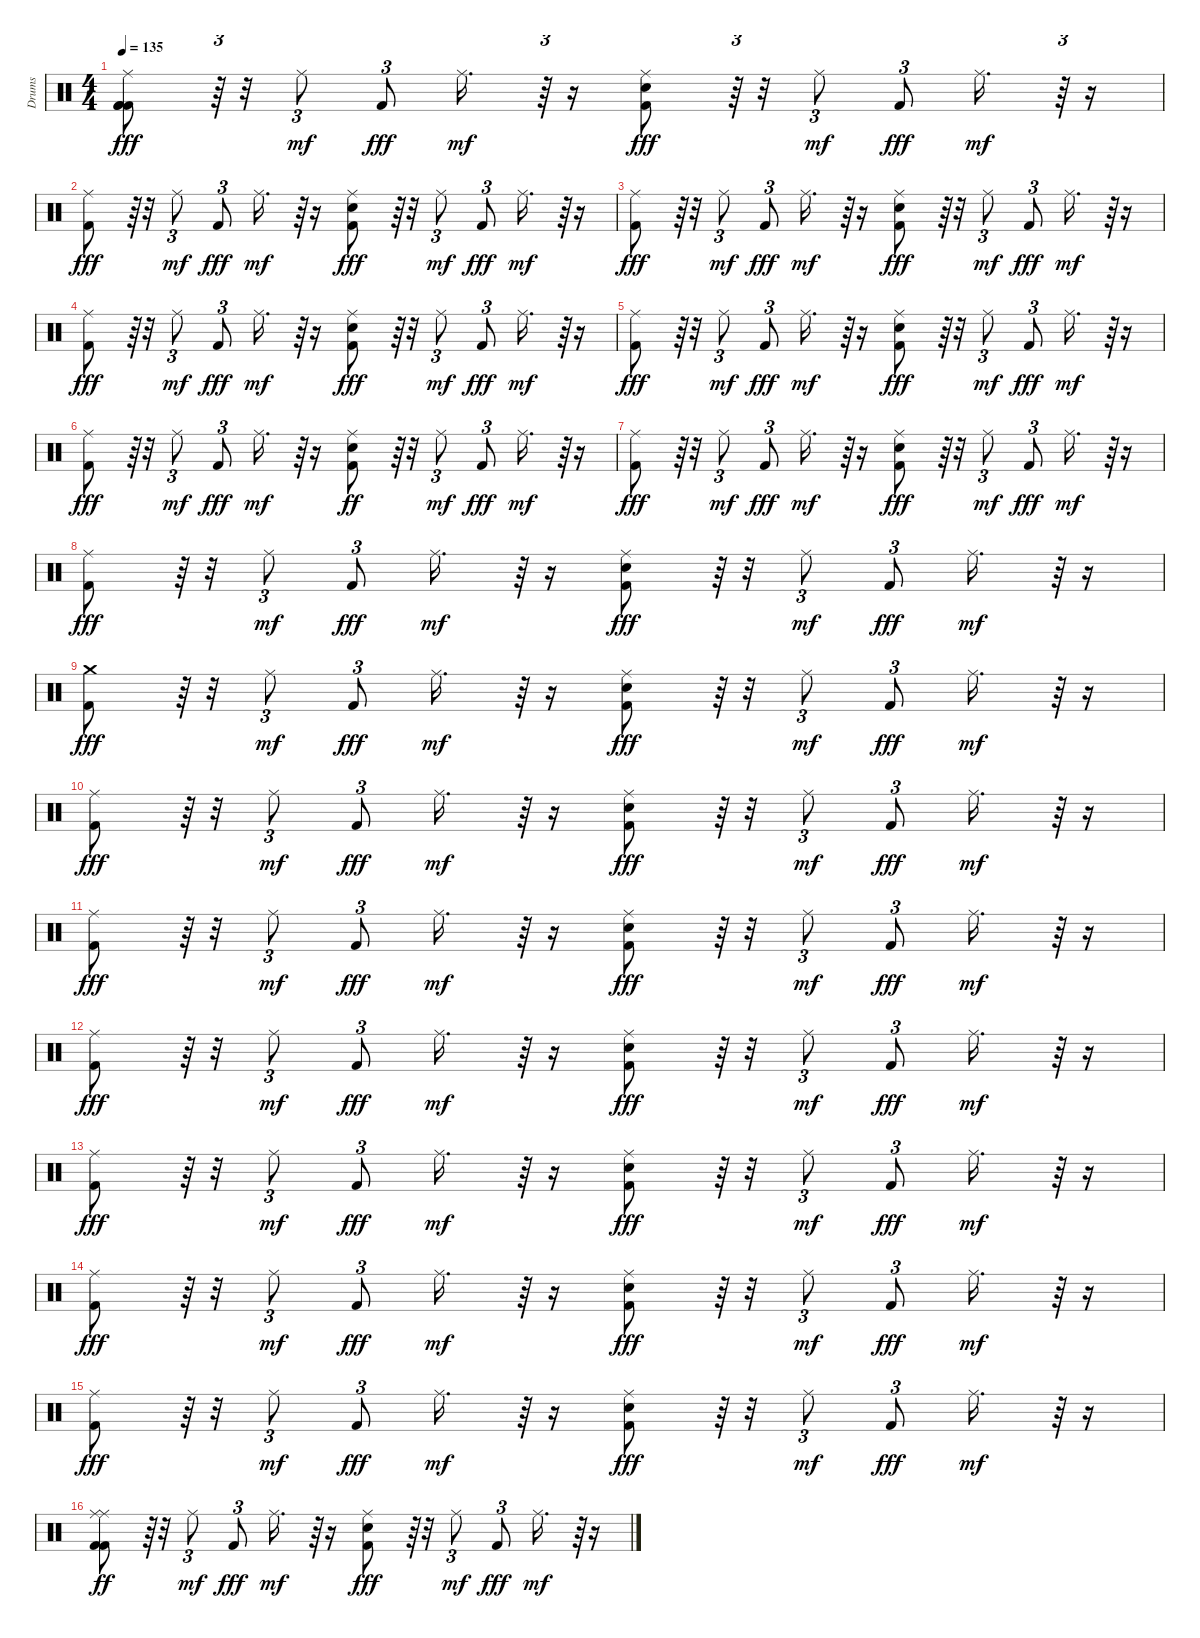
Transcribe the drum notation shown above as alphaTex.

\track ("Drums" "Drums") {instrument percussion}
\staff {score}
\articulation defaults
\ts (4 4)
\tempo 135
\clef neutral
\ks c
("Ride (middle)" "Kick (hit) 2" "Kick (hit) 2" "Kick (hit) 2").8{dy fff} r.64{tu (3 2)} r.32 "Ride (middle)".8{tu (3 2) dy mf} "Kick (hit) 2".8{tu (3 2) dy fff} "Ride (middle)".16{d dy mf} r.64{tu (3 2)} r.16 ("Ride (middle)" "Kick (hit) 2" "Snare (hit) 2").8{dy fff} r.64{tu (3 2)} r.32 "Ride (middle)".8{tu (3 2) dy mf} "Kick (hit) 2".8{tu (3 2) dy fff} "Ride (middle)".16{d dy mf} r.64{tu (3 2)} r.16 |
("Ride (middle)" "Kick (hit) 2").8{dy fff} r.64{tu (3 2)} r.32 "Ride (middle)".8{tu (3 2) dy mf} "Kick (hit) 2".8{tu (3 2) dy fff} "Ride (middle)".16{d dy mf} r.64{tu (3 2)} r.16 ("Ride (middle)" "Snare (hit) 2" "Kick (hit) 2").8{dy fff} r.64{tu (3 2)} r.32 "Ride (middle)".8{tu (3 2) dy mf} "Kick (hit) 2".8{tu (3 2) dy fff} "Ride (middle)".16{d dy mf} r.64{tu (3 2)} r.16 |
("Ride (middle)" "Kick (hit) 2").8{dy fff} r.64{tu (3 2)} r.32 "Ride (middle)".8{tu (3 2) dy mf} "Kick (hit) 2".8{tu (3 2) dy fff} "Ride (middle)".16{d dy mf} r.64{tu (3 2)} r.16 ("Ride (middle)" "Kick (hit) 2" "Snare (hit) 2").8{dy fff} r.64{tu (3 2)} r.32 "Ride (middle)".8{tu (3 2) dy mf} "Kick (hit) 2".8{tu (3 2) dy fff} "Ride (middle)".16{d dy mf} r.64{tu (3 2)} r.16 |
("Ride (middle)" "Kick (hit) 2").8{dy fff} r.64{tu (3 2)} r.32 "Ride (middle)".8{tu (3 2) dy mf} "Kick (hit) 2".8{tu (3 2) dy fff} "Ride (middle)".16{d dy mf} r.64{tu (3 2)} r.16 ("Ride (middle)" "Snare (hit) 2" "Kick (hit) 2").8{dy fff} r.64{tu (3 2)} r.32 "Ride (middle)".8{tu (3 2) dy mf} "Kick (hit) 2".8{tu (3 2) dy fff} "Ride (middle)".16{d dy mf} r.64{tu (3 2)} r.16 |
("Ride (middle)" "Kick (hit) 2").8{dy fff} r.64{tu (3 2)} r.32 "Ride (middle)".8{tu (3 2) dy mf} "Kick (hit) 2".8{tu (3 2) dy fff} "Ride (middle)".16{d dy mf} r.64{tu (3 2)} r.16 ("Ride (middle)" "Snare (hit) 2" "Kick (hit) 2").8{dy fff} r.64{tu (3 2)} r.32 "Ride (middle)".8{tu (3 2) dy mf} "Kick (hit) 2".8{tu (3 2) dy fff} "Ride (middle)".16{d dy mf} r.64{tu (3 2)} r.16 |
("Ride (middle)" "Kick (hit) 2").8{dy fff} r.64{tu (3 2)} r.32 "Ride (middle)".8{tu (3 2) dy mf} "Kick (hit) 2".8{tu (3 2) dy fff} "Ride (middle)".16{d dy mf} r.64{tu (3 2)} r.16 ("Ride (middle)" "Kick (hit) 2" "Snare (hit) 2").8{dy ff} r.64{tu (3 2)} r.32 "Ride (middle)".8{tu (3 2) dy mf} "Kick (hit) 2".8{tu (3 2) dy fff} "Ride (middle)".16{d dy mf} r.64{tu (3 2)} r.16 |
("Ride (middle)" "Kick (hit) 2").8{dy fff} r.64{tu (3 2)} r.32 "Ride (middle)".8{tu (3 2) dy mf} "Kick (hit) 2".8{tu (3 2) dy fff} "Ride (middle)".16{d dy mf} r.64{tu (3 2)} r.16 ("Ride (middle)" "Snare (hit) 2" "Kick (hit) 2").8{dy fff} r.64{tu (3 2)} r.32 "Ride (middle)".8{tu (3 2) dy mf} "Kick (hit) 2".8{tu (3 2) dy fff} "Ride (middle)".16{d dy mf} r.64{tu (3 2)} r.16 |
("Ride (middle)" "Kick (hit) 2").8{dy fff} r.64{tu (3 2)} r.32 "Ride (middle)".8{tu (3 2) dy mf} "Kick (hit) 2".8{tu (3 2) dy fff} "Ride (middle)".16{d dy mf} r.64{tu (3 2)} r.16 ("Ride (middle)" "Snare (hit) 2" "Kick (hit) 2").8{dy fff} r.64{tu (3 2)} r.32 "Ride (middle)".8{tu (3 2) dy mf} "Kick (hit) 2".8{tu (3 2) dy fff} "Ride (middle)".16{d dy mf} r.64{tu (3 2)} r.16 |
("Crash medium (hit)" "Kick (hit) 2").8{dy fff} r.64{tu (3 2)} r.32 "Ride (middle)".8{tu (3 2) dy mf} "Kick (hit) 2".8{tu (3 2) dy fff} "Ride (middle)".16{d dy mf} r.64{tu (3 2)} r.16 ("Ride (middle)" "Snare (hit) 2" "Kick (hit) 2").8{dy fff} r.64{tu (3 2)} r.32 "Ride (middle)".8{tu (3 2) dy mf} "Kick (hit) 2".8{tu (3 2) dy fff} "Ride (middle)".16{d dy mf} r.64{tu (3 2)} r.16 |
("Ride (middle)" "Kick (hit) 2").8{dy fff} r.64{tu (3 2)} r.32 "Ride (middle)".8{tu (3 2) dy mf} "Kick (hit) 2".8{tu (3 2) dy fff} "Ride (middle)".16{d dy mf} r.64{tu (3 2)} r.16 ("Ride (middle)" "Kick (hit) 2" "Snare (hit) 2").8{dy fff} r.64{tu (3 2)} r.32 "Ride (middle)".8{tu (3 2) dy mf} "Kick (hit) 2".8{tu (3 2) dy fff} "Ride (middle)".16{d dy mf} r.64{tu (3 2)} r.16 |
("Ride (middle)" "Kick (hit) 2").8{dy fff} r.64{tu (3 2)} r.32 "Ride (middle)".8{tu (3 2) dy mf} "Kick (hit) 2".8{tu (3 2) dy fff} "Ride (middle)".16{d dy mf} r.64{tu (3 2)} r.16 ("Ride (middle)" "Snare (hit) 2" "Kick (hit) 2").8{dy fff} r.64{tu (3 2)} r.32 "Ride (middle)".8{tu (3 2) dy mf} "Kick (hit) 2".8{tu (3 2) dy fff} "Ride (middle)".16{d dy mf} r.64{tu (3 2)} r.16 |
("Ride (middle)" "Kick (hit) 2").8{dy fff} r.64{tu (3 2)} r.32 "Ride (middle)".8{tu (3 2) dy mf} "Kick (hit) 2".8{tu (3 2) dy fff} "Ride (middle)".16{d dy mf} r.64{tu (3 2)} r.16 ("Ride (middle)" "Snare (hit) 2" "Kick (hit) 2").8{dy fff} r.64{tu (3 2)} r.32 "Ride (middle)".8{tu (3 2) dy mf} "Kick (hit) 2".8{tu (3 2) dy fff} "Ride (middle)".16{d dy mf} r.64{tu (3 2)} r.16 |
("Ride (middle)" "Kick (hit) 2").8{dy fff} r.64{tu (3 2)} r.32 "Ride (middle)".8{tu (3 2) dy mf} "Kick (hit) 2".8{tu (3 2) dy fff} "Ride (middle)".16{d dy mf} r.64{tu (3 2)} r.16 ("Ride (middle)" "Snare (hit) 2" "Kick (hit) 2").8{dy fff} r.64{tu (3 2)} r.32 "Ride (middle)".8{tu (3 2) dy mf} "Kick (hit) 2".8{tu (3 2) dy fff} "Ride (middle)".16{d dy mf} r.64{tu (3 2)} r.16 |
("Ride (middle)" "Kick (hit) 2").8{dy fff} r.64{tu (3 2)} r.32 "Ride (middle)".8{tu (3 2) dy mf} "Kick (hit) 2".8{tu (3 2) dy fff} "Ride (middle)".16{d dy mf} r.64{tu (3 2)} r.16 ("Ride (middle)" "Snare (hit) 2" "Kick (hit) 2").8{dy fff} r.64{tu (3 2)} r.32 "Ride (middle)".8{tu (3 2) dy mf} "Kick (hit) 2".8{tu (3 2) dy fff} "Ride (middle)".16{d dy mf} r.64{tu (3 2)} r.16 |
("Ride (middle)" "Kick (hit) 2").8{dy fff} r.64{tu (3 2)} r.32 "Ride (middle)".8{tu (3 2) dy mf} "Kick (hit) 2".8{tu (3 2) dy fff} "Ride (middle)".16{d dy mf} r.64{tu (3 2)} r.16 ("Ride (middle)" "Snare (hit) 2" "Kick (hit) 2").8{dy fff} r.64{tu (3 2)} r.32 "Ride (middle)".8{tu (3 2) dy mf} "Kick (hit) 2".8{tu (3 2) dy fff} "Ride (middle)".16{d dy mf} r.64{tu (3 2)} r.16 |
("Ride (middle)" "Ride (middle)" "Kick (hit) 2" "Kick (hit) 2").8{dy ff} r.64{tu (3 2)} r.32 "Ride (middle)".8{tu (3 2) dy mf} "Kick (hit) 2".8{tu (3 2) dy fff} "Ride (middle)".16{d dy mf} r.64{tu (3 2)} r.16 ("Ride (middle)" "Snare (hit) 2" "Kick (hit) 2").8{dy fff} r.64{tu (3 2)} r.32 "Ride (middle)".8{tu (3 2) dy mf} "Kick (hit) 2".8{tu (3 2) dy fff} "Ride (middle)".16{d dy mf} r.64{tu (3 2)} r.16
